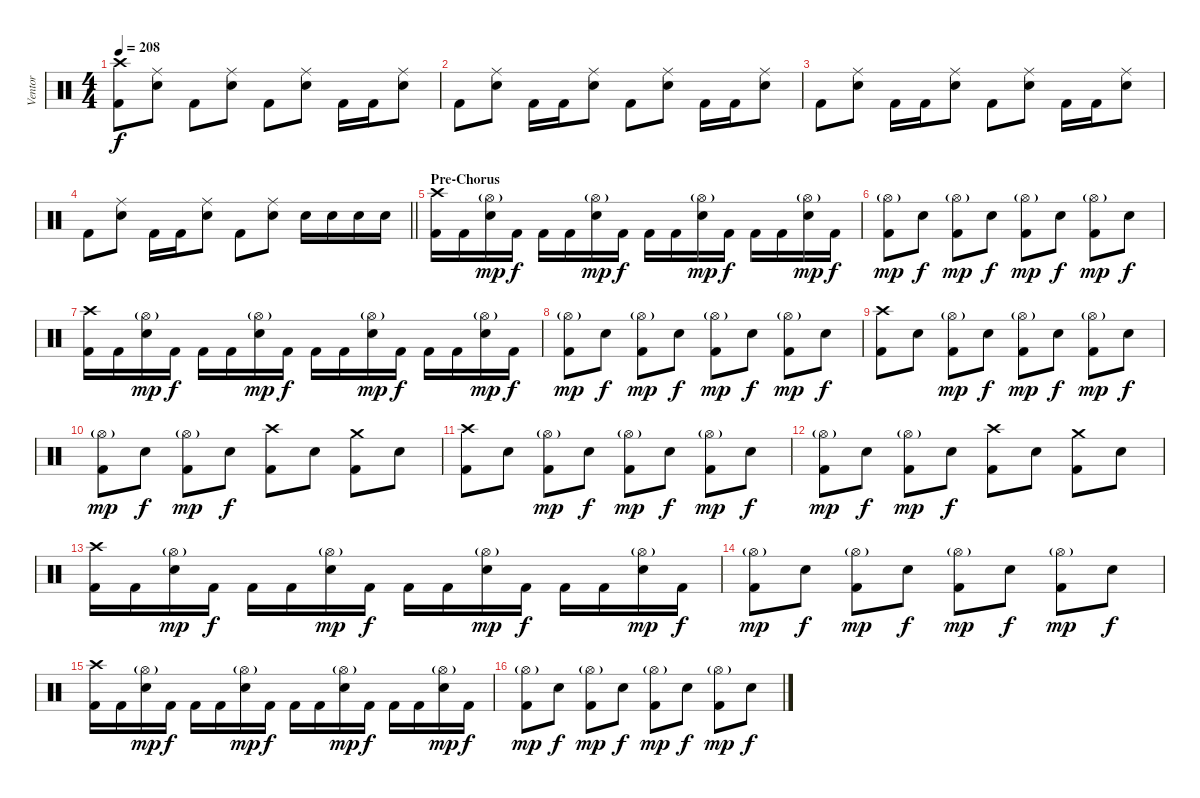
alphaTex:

\track ("Ventor" "Ventor") {instrument percussion}
\staff {score}
\articulation defaults
\ts (4 4)
\tempo 208
\clef neutral
\ks c
("Crash high (hit)" "Kick (hit) 2").8{dy f} ("Ride (middle)" "Electric Snare (hit)").8 "Kick (hit) 2".8 ("Ride (middle)" "Electric Snare (hit)").8 "Kick (hit) 2".8 ("Ride (middle)" "Electric Snare (hit)").8 "Kick (hit) 2".16 "Kick (hit) 2".16 ("Ride (middle)" "Electric Snare (hit)").8 |
"Kick (hit) 2".8 ("Ride (middle)" "Electric Snare (hit)").8 "Kick (hit) 2".16 "Kick (hit) 2".16 ("Ride (middle)" "Electric Snare (hit)").8 "Kick (hit) 2".8 ("Ride (middle)" "Electric Snare (hit)").8 "Kick (hit) 2".16 "Kick (hit) 2".16 ("Ride (middle)" "Electric Snare (hit)").8 |
"Kick (hit) 2".8 ("Ride (middle)" "Electric Snare (hit)").8 "Kick (hit) 2".16 "Kick (hit) 2".16 ("Ride (middle)" "Electric Snare (hit)").8 "Kick (hit) 2".8 ("Ride (middle)" "Electric Snare (hit)").8 "Kick (hit) 2".16 "Kick (hit) 2".16 ("Ride (middle)" "Electric Snare (hit)").8 |
\barLineRight lightlight "Kick (hit) 2".8
("Ride (middle)" "Electric Snare (hit)").8 "Kick (hit) 2".16 "Kick (hit) 2".16 ("Ride (middle)" "Electric Snare (hit)").8 "Kick (hit) 2".8 ("Ride (middle)" "Electric Snare (hit)").8 "Electric Snare (hit)".16 "Electric Snare (hit)".16 "Electric Snare (hit)".16 "Electric Snare (hit)".16 |
\section ("" "Pre-Chorus")
("Crash high (hit)" "Kick (hit) 2").16 "Kick (hit) 2".16 ("Hi-Hat (open)"{g} "Electric Snare (hit)").16{dy mp} "Kick (hit) 2".16{dy f} "Kick (hit) 2".16 "Kick (hit) 2".16 ("Hi-Hat (open)"{g} "Electric Snare (hit)").16{dy mp} "Kick (hit) 2".16{dy f} "Kick (hit) 2".16 "Kick (hit) 2".16 ("Hi-Hat (open)"{g} "Electric Snare (hit)").16{dy mp} "Kick (hit) 2".16{dy f} "Kick (hit) 2".16 "Kick (hit) 2".16 ("Hi-Hat (open)"{g} "Electric Snare (hit)").16{dy mp} "Kick (hit) 2".16{dy f} |
("Hi-Hat (open)"{g} "Kick (hit) 2").8{dy mp} "Electric Snare (hit)".8{dy f} ("Hi-Hat (open)"{g} "Kick (hit) 2").8{dy mp} "Electric Snare (hit)".8{dy f} ("Hi-Hat (open)"{g} "Kick (hit) 2").8{dy mp} "Electric Snare (hit)".8{dy f} ("Hi-Hat (open)"{g} "Kick (hit) 2").8{dy mp} "Electric Snare (hit)".8{dy f} |
("Crash high (hit)" "Kick (hit) 2").16 "Kick (hit) 2".16 ("Hi-Hat (open)"{g} "Electric Snare (hit)").16{dy mp} "Kick (hit) 2".16{dy f} "Kick (hit) 2".16 "Kick (hit) 2".16 ("Hi-Hat (open)"{g} "Electric Snare (hit)").16{dy mp} "Kick (hit) 2".16{dy f} "Kick (hit) 2".16 "Kick (hit) 2".16 ("Hi-Hat (open)"{g} "Electric Snare (hit)").16{dy mp} "Kick (hit) 2".16{dy f} "Kick (hit) 2".16 "Kick (hit) 2".16 ("Hi-Hat (open)"{g} "Electric Snare (hit)").16{dy mp} "Kick (hit) 2".16{dy f} |
("Hi-Hat (open)"{g} "Kick (hit) 2").8{dy mp} "Electric Snare (hit)".8{dy f} ("Hi-Hat (open)"{g} "Kick (hit) 2").8{dy mp} "Electric Snare (hit)".8{dy f} ("Hi-Hat (open)"{g} "Kick (hit) 2").8{dy mp} "Electric Snare (hit)".8{dy f} ("Hi-Hat (open)"{g} "Kick (hit) 2").8{dy mp} "Electric Snare (hit)".8{dy f} |
("Crash high (hit)" "Kick (hit) 2").8 "Electric Snare (hit)".8 ("Hi-Hat (open)"{g} "Kick (hit) 2").8{dy mp} "Electric Snare (hit)".8{dy f} ("Hi-Hat (open)"{g} "Kick (hit) 2").8{dy mp} "Electric Snare (hit)".8{dy f} ("Hi-Hat (open)"{g} "Kick (hit) 2").8{dy mp} "Electric Snare (hit)".8{dy f} |
("Hi-Hat (open)"{g} "Kick (hit) 2").8{dy mp} "Electric Snare (hit)".8{dy f} ("Hi-Hat (open)"{g} "Kick (hit) 2").8{dy mp} "Electric Snare (hit)".8{dy f} ("Crash high (hit)" "Kick (hit) 2").8 "Electric Snare (hit)".8 ("Crash medium (hit)" "Kick (hit) 2").8 "Electric Snare (hit)".8 |
("Crash high (hit)" "Kick (hit) 2").8 "Electric Snare (hit)".8 ("Hi-Hat (open)"{g} "Kick (hit) 2").8{dy mp} "Electric Snare (hit)".8{dy f} ("Hi-Hat (open)"{g} "Kick (hit) 2").8{dy mp} "Electric Snare (hit)".8{dy f} ("Hi-Hat (open)"{g} "Kick (hit) 2").8{dy mp} "Electric Snare (hit)".8{dy f} |
("Hi-Hat (open)"{g} "Kick (hit) 2").8{dy mp} "Electric Snare (hit)".8{dy f} ("Hi-Hat (open)"{g} "Kick (hit) 2").8{dy mp} "Electric Snare (hit)".8{dy f} ("Crash high (hit)" "Kick (hit) 2").8 "Electric Snare (hit)".8 ("Crash medium (hit)" "Kick (hit) 2").8 "Electric Snare (hit)".8 |
("Crash high (hit)" "Kick (hit) 2").16 "Kick (hit) 2".16 ("Hi-Hat (open)"{g} "Electric Snare (hit)").16{dy mp} "Kick (hit) 2".16{dy f} "Kick (hit) 2".16 "Kick (hit) 2".16 ("Hi-Hat (open)"{g} "Electric Snare (hit)").16{dy mp} "Kick (hit) 2".16{dy f} "Kick (hit) 2".16 "Kick (hit) 2".16 ("Hi-Hat (open)"{g} "Electric Snare (hit)").16{dy mp} "Kick (hit) 2".16{dy f} "Kick (hit) 2".16 "Kick (hit) 2".16 ("Hi-Hat (open)"{g} "Electric Snare (hit)").16{dy mp} "Kick (hit) 2".16{dy f} |
("Hi-Hat (open)"{g} "Kick (hit) 2").8{dy mp} "Electric Snare (hit)".8{dy f} ("Hi-Hat (open)"{g} "Kick (hit) 2").8{dy mp} "Electric Snare (hit)".8{dy f} ("Hi-Hat (open)"{g} "Kick (hit) 2").8{dy mp} "Electric Snare (hit)".8{dy f} ("Hi-Hat (open)"{g} "Kick (hit) 2").8{dy mp} "Electric Snare (hit)".8{dy f} |
("Crash high (hit)" "Kick (hit) 2").16 "Kick (hit) 2".16 ("Hi-Hat (open)"{g} "Electric Snare (hit)").16{dy mp} "Kick (hit) 2".16{dy f} "Kick (hit) 2".16 "Kick (hit) 2".16 ("Hi-Hat (open)"{g} "Electric Snare (hit)").16{dy mp} "Kick (hit) 2".16{dy f} "Kick (hit) 2".16 "Kick (hit) 2".16 ("Hi-Hat (open)"{g} "Electric Snare (hit)").16{dy mp} "Kick (hit) 2".16{dy f} "Kick (hit) 2".16 "Kick (hit) 2".16 ("Hi-Hat (open)"{g} "Electric Snare (hit)").16{dy mp} "Kick (hit) 2".16{dy f} |
("Hi-Hat (open)"{g} "Kick (hit) 2").8{dy mp} "Electric Snare (hit)".8{dy f} ("Hi-Hat (open)"{g} "Kick (hit) 2").8{dy mp} "Electric Snare (hit)".8{dy f} ("Hi-Hat (open)"{g} "Kick (hit) 2").8{dy mp} "Electric Snare (hit)".8{dy f} ("Hi-Hat (open)"{g} "Kick (hit) 2").8{dy mp} "Electric Snare (hit)".8{dy f}
